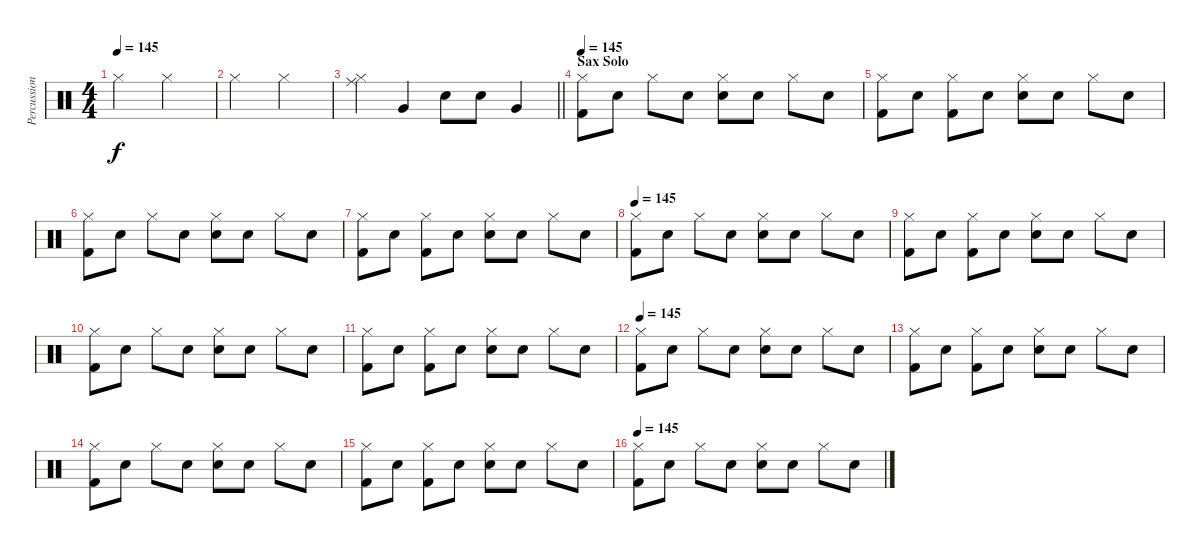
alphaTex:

\track ("Percussion" "Percussion") {instrument percussion}
\staff {score}
\articulation defaults
\ts (4 4)
\tempo 145
\clef neutral
\ks c "Hi-Hat (closed)".2{dy f} "Hi-Hat (closed)".2
|
"Hi-Hat (closed)".2 "Hi-Hat (closed)".2 |
\barLineRight lightlight
("Hi-Hat (closed)" "Ride (middle)").4 "Very Low Tom (hit)".4 "Electric Snare (hit)".8 "Electric Snare (hit)".8 "Very Low Tom (hit)".4 |
\section ("" "Sax Solo")
\tempo 145
("Hi-Hat (closed)" "Kick (hit) 2").8 "Snare (hit)"{x}.8 "Hi-Hat (closed)".8 "Snare (hit)"{x}.8 ("Hi-Hat (closed)" "Electric Snare (hit)").8 "Snare (hit)"{x}.8 "Hi-Hat (closed)".8 "Snare (hit)"{x}.8 |
("Hi-Hat (closed)" "Kick (hit) 2").8 "Snare (hit)"{x}.8 ("Hi-Hat (closed)" "Kick (hit) 2").8 "Snare (hit)"{x}.8 ("Hi-Hat (closed)" "Electric Snare (hit)").8 "Snare (hit)"{x}.8 "Hi-Hat (closed)".8 "Snare (hit)"{x}.8 |
("Hi-Hat (closed)" "Kick (hit) 2").8 "Snare (hit)"{x}.8 "Hi-Hat (closed)".8 "Snare (hit)"{x}.8 ("Hi-Hat (closed)" "Electric Snare (hit)").8 "Snare (hit)"{x}.8 "Hi-Hat (closed)".8 "Snare (hit)"{x}.8 |
("Hi-Hat (closed)" "Kick (hit) 2").8 "Snare (hit)"{x}.8 ("Hi-Hat (closed)" "Kick (hit) 2").8 "Snare (hit)"{x}.8 ("Hi-Hat (closed)" "Electric Snare (hit)").8 "Snare (hit)"{x}.8 "Hi-Hat (closed)".8 "Snare (hit)"{x}.8 |
\tempo 145
("Hi-Hat (closed)" "Kick (hit) 2").8 "Snare (hit)"{x}.8 "Hi-Hat (closed)".8 "Snare (hit)"{x}.8 ("Hi-Hat (closed)" "Electric Snare (hit)").8 "Snare (hit)"{x}.8 "Hi-Hat (closed)".8 "Snare (hit)"{x}.8 |
("Hi-Hat (closed)" "Kick (hit) 2").8 "Snare (hit)"{x}.8 ("Hi-Hat (closed)" "Kick (hit) 2").8 "Snare (hit)"{x}.8 ("Hi-Hat (closed)" "Electric Snare (hit)").8 "Snare (hit)"{x}.8 "Hi-Hat (closed)".8 "Snare (hit)"{x}.8 |
("Hi-Hat (closed)" "Kick (hit) 2").8 "Snare (hit)"{x}.8 "Hi-Hat (closed)".8 "Snare (hit)"{x}.8 ("Hi-Hat (closed)" "Electric Snare (hit)").8 "Snare (hit)"{x}.8 "Hi-Hat (closed)".8 "Snare (hit)"{x}.8 |
("Hi-Hat (closed)" "Kick (hit) 2").8 "Snare (hit)"{x}.8 ("Hi-Hat (closed)" "Kick (hit) 2").8 "Snare (hit)"{x}.8 ("Hi-Hat (closed)" "Electric Snare (hit)").8 "Snare (hit)"{x}.8 "Hi-Hat (closed)".8 "Snare (hit)"{x}.8 |
\tempo 145
("Hi-Hat (closed)" "Kick (hit) 2").8 "Snare (hit)"{x}.8 "Hi-Hat (closed)".8 "Snare (hit)"{x}.8 ("Hi-Hat (closed)" "Electric Snare (hit)").8 "Snare (hit)"{x}.8 "Hi-Hat (closed)".8 "Snare (hit)"{x}.8 |
("Hi-Hat (closed)" "Kick (hit) 2").8 "Snare (hit)"{x}.8 ("Hi-Hat (closed)" "Kick (hit) 2").8 "Snare (hit)"{x}.8 ("Hi-Hat (closed)" "Electric Snare (hit)").8 "Snare (hit)"{x}.8 "Hi-Hat (closed)".8 "Snare (hit)"{x}.8 |
("Hi-Hat (closed)" "Kick (hit) 2").8 "Snare (hit)"{x}.8 "Hi-Hat (closed)".8 "Snare (hit)"{x}.8 ("Hi-Hat (closed)" "Electric Snare (hit)").8 "Snare (hit)"{x}.8 "Hi-Hat (closed)".8 "Snare (hit)"{x}.8 |
("Hi-Hat (closed)" "Kick (hit) 2").8 "Snare (hit)"{x}.8 ("Hi-Hat (closed)" "Kick (hit) 2").8 "Snare (hit)"{x}.8 ("Hi-Hat (closed)" "Electric Snare (hit)").8 "Snare (hit)"{x}.8 "Hi-Hat (closed)".8 "Snare (hit)"{x}.8 |
\tempo 145
("Hi-Hat (closed)" "Kick (hit) 2").8 "Snare (hit)"{x}.8 "Hi-Hat (closed)".8 "Snare (hit)"{x}.8 ("Hi-Hat (closed)" "Electric Snare (hit)").8 "Snare (hit)"{x}.8 "Hi-Hat (closed)".8 "Snare (hit)"{x}.8
